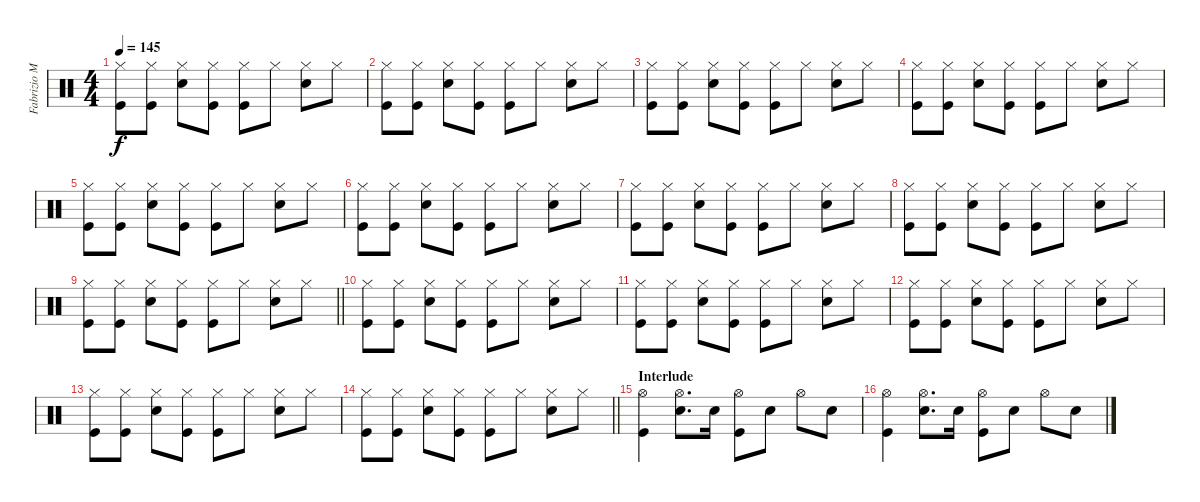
\track ("Fabrizio Moretti" "Fabrizio M") {instrument percussion}
\staff {score}
\articulation defaults
\ts (4 4)
\tempo 145
\clef neutral
\ks c
("Hi-Hat (closed)" "Kick (hit)").8{dy f} ("Hi-Hat (closed)" "Kick (hit)").8 ("Hi-Hat (closed)" "Snare (hit) 2").8 ("Hi-Hat (closed)" "Kick (hit)").8 ("Hi-Hat (closed)" "Kick (hit)").8 "Hi-Hat (closed)".8 ("Hi-Hat (closed)" "Snare (hit) 2").8 "Hi-Hat (closed)".8 |
("Hi-Hat (closed)" "Kick (hit)").8 ("Hi-Hat (closed)" "Kick (hit)").8 ("Hi-Hat (closed)" "Snare (hit) 2").8 ("Hi-Hat (closed)" "Kick (hit)").8 ("Hi-Hat (closed)" "Kick (hit)").8 "Hi-Hat (closed)".8 ("Hi-Hat (closed)" "Snare (hit) 2").8 "Hi-Hat (closed)".8 |
("Hi-Hat (closed)" "Kick (hit)").8 ("Hi-Hat (closed)" "Kick (hit)").8 ("Hi-Hat (closed)" "Snare (hit) 2").8 ("Hi-Hat (closed)" "Kick (hit)").8 ("Hi-Hat (closed)" "Kick (hit)").8 "Hi-Hat (closed)".8 ("Hi-Hat (closed)" "Snare (hit) 2").8 "Hi-Hat (closed)".8 |
("Hi-Hat (closed)" "Kick (hit)").8 ("Hi-Hat (closed)" "Kick (hit)").8 ("Hi-Hat (closed)" "Snare (hit) 2").8 ("Hi-Hat (closed)" "Kick (hit)").8 ("Hi-Hat (closed)" "Kick (hit)").8 "Hi-Hat (closed)".8 ("Hi-Hat (closed)" "Snare (hit) 2").8 "Hi-Hat (closed)".8 |
("Hi-Hat (closed)" "Kick (hit)").8 ("Hi-Hat (closed)" "Kick (hit)").8 ("Hi-Hat (closed)" "Snare (hit) 2").8 ("Hi-Hat (closed)" "Kick (hit)").8 ("Hi-Hat (closed)" "Kick (hit)").8 "Hi-Hat (closed)".8 ("Hi-Hat (closed)" "Snare (hit) 2").8 "Hi-Hat (closed)".8 |
("Hi-Hat (closed)" "Kick (hit)").8 ("Hi-Hat (closed)" "Kick (hit)").8 ("Hi-Hat (closed)" "Snare (hit) 2").8 ("Hi-Hat (closed)" "Kick (hit)").8 ("Hi-Hat (closed)" "Kick (hit)").8 "Hi-Hat (closed)".8 ("Hi-Hat (closed)" "Snare (hit) 2").8 "Hi-Hat (closed)".8 |
("Hi-Hat (closed)" "Kick (hit)").8 ("Hi-Hat (closed)" "Kick (hit)").8 ("Hi-Hat (closed)" "Snare (hit) 2").8 ("Hi-Hat (closed)" "Kick (hit)").8 ("Hi-Hat (closed)" "Kick (hit)").8 "Hi-Hat (closed)".8 ("Hi-Hat (closed)" "Snare (hit) 2").8 "Hi-Hat (closed)".8 |
("Hi-Hat (closed)" "Kick (hit)").8 ("Hi-Hat (closed)" "Kick (hit)").8 ("Hi-Hat (closed)" "Snare (hit) 2").8 ("Hi-Hat (closed)" "Kick (hit)").8 ("Hi-Hat (closed)" "Kick (hit)").8 "Hi-Hat (closed)".8 ("Hi-Hat (closed)" "Snare (hit) 2").8 "Hi-Hat (closed)".8 |
\barLineRight lightlight
("Hi-Hat (closed)" "Kick (hit)").8 ("Hi-Hat (closed)" "Kick (hit)").8 ("Hi-Hat (closed)" "Snare (hit) 2").8 ("Hi-Hat (closed)" "Kick (hit)").8 ("Hi-Hat (closed)" "Kick (hit)").8 "Hi-Hat (closed)".8 ("Hi-Hat (closed)" "Snare (hit) 2").8 "Hi-Hat (closed)".8 |
("Hi-Hat (closed)" "Kick (hit)").8 ("Hi-Hat (closed)" "Kick (hit)").8 ("Hi-Hat (closed)" "Snare (hit) 2").8 ("Hi-Hat (closed)" "Kick (hit)").8 ("Hi-Hat (closed)" "Kick (hit)").8 "Hi-Hat (closed)".8 ("Hi-Hat (closed)" "Snare (hit) 2").8 "Hi-Hat (closed)".8 |
("Hi-Hat (closed)" "Kick (hit)").8 ("Hi-Hat (closed)" "Kick (hit)").8 ("Hi-Hat (closed)" "Snare (hit) 2").8 ("Hi-Hat (closed)" "Kick (hit)").8 ("Hi-Hat (closed)" "Kick (hit)").8 "Hi-Hat (closed)".8 ("Hi-Hat (closed)" "Snare (hit) 2").8 "Hi-Hat (closed)".8 |
("Hi-Hat (closed)" "Kick (hit)").8 ("Hi-Hat (closed)" "Kick (hit)").8 ("Hi-Hat (closed)" "Snare (hit) 2").8 ("Hi-Hat (closed)" "Kick (hit)").8 ("Hi-Hat (closed)" "Kick (hit)").8 "Hi-Hat (closed)".8 ("Hi-Hat (closed)" "Snare (hit) 2").8 "Hi-Hat (closed)".8 |
("Hi-Hat (closed)" "Kick (hit)").8 ("Hi-Hat (closed)" "Kick (hit)").8 ("Hi-Hat (closed)" "Snare (hit) 2").8 ("Hi-Hat (closed)" "Kick (hit)").8 ("Hi-Hat (closed)" "Kick (hit)").8 "Hi-Hat (closed)".8 ("Hi-Hat (closed)" "Snare (hit) 2").8 "Hi-Hat (closed)".8 |
\barLineRight lightlight
("Hi-Hat (closed)" "Kick (hit)").8 ("Hi-Hat (closed)" "Kick (hit)").8 ("Hi-Hat (closed)" "Snare (hit) 2").8 ("Hi-Hat (closed)" "Kick (hit)").8 ("Hi-Hat (closed)" "Kick (hit)").8 "Hi-Hat (closed)".8 ("Hi-Hat (closed)" "Snare (hit) 2").8 "Hi-Hat (closed)".8 |
\section ("" "Interlude")
("Hi-Hat (open)" "Kick (hit)").4 ("Hi-Hat (open)" "Snare (hit) 2").8{d} "Snare (hit) 2".16 ("Hi-Hat (open)" "Kick (hit)").8 "Snare (hit) 2".8 "Hi-Hat (open)".8 "Snare (hit) 2".8 |
("Hi-Hat (open)" "Kick (hit)").4 ("Hi-Hat (open)" "Snare (hit) 2").8{d} "Snare (hit) 2".16 ("Hi-Hat (open)" "Kick (hit)").8 "Snare (hit) 2".8 "Hi-Hat (open)".8 "Snare (hit) 2".8
